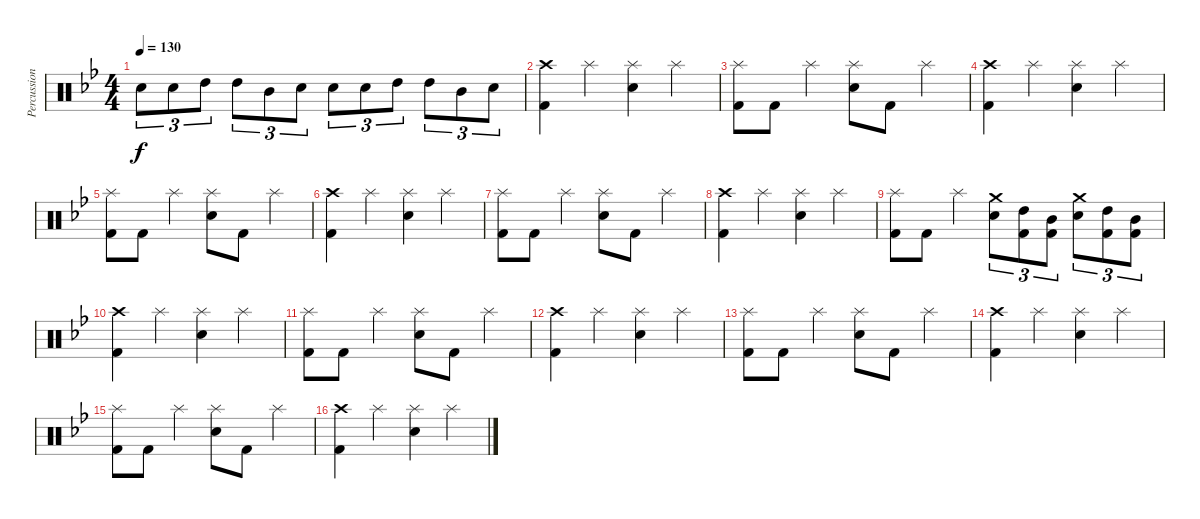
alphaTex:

\track ("Percussions" "Percussion") {instrument percussion}
\staff {score}
\articulation defaults
\ts (4 4)
\tempo 130
\clef neutral
\ks gminor "Electric Snare (hit)".8{tu (3 2) dy f} "Electric Snare (hit)".8{tu (3 2)} "High Tom (hit)".8{tu (3 2)} "High Tom (hit)".8{tu (3 2)} "Mid Tom (hit)".8{tu (3 2)} "Electric Snare (hit)".8{tu (3 2)} "Electric Snare (hit)".8{tu (3 2)} "Electric Snare (hit)".8{tu (3 2)} "High Tom (hit)".8{tu (3 2)} "High Tom (hit)".8{tu (3 2)} "Mid Tom (hit)".8{tu (3 2)} "Electric Snare (hit)".8{tu (3 2)}
|
("Crash high (hit)" "Kick (hit) 2").4 "Splash (hit)".4 ("Splash (hit)" "Electric Snare (hit)").4 "Splash (hit)".4 |
("Splash (hit)" "Kick (hit) 2").8 "Kick (hit) 2".8 "Splash (hit)".4 ("Splash (hit)" "Electric Snare (hit)").8 "Kick (hit) 2".8 "Splash (hit)".4 |
("Crash high (hit)" "Kick (hit) 2").4 "Splash (hit)".4 ("Splash (hit)" "Electric Snare (hit)").4 "Splash (hit)".4 |
("Splash (hit)" "Kick (hit) 2").8 "Kick (hit) 2".8 "Splash (hit)".4 ("Splash (hit)" "Electric Snare (hit)").8 "Kick (hit) 2".8 "Splash (hit)".4 |
("Crash high (hit)" "Kick (hit) 2").4 "Splash (hit)".4 ("Splash (hit)" "Electric Snare (hit)").4 "Splash (hit)".4 |
("Splash (hit)" "Kick (hit) 2").8 "Kick (hit) 2".8 "Splash (hit)".4 ("Splash (hit)" "Electric Snare (hit)").8 "Kick (hit) 2".8 "Splash (hit)".4 |
("Crash high (hit)" "Kick (hit) 2").4 "Splash (hit)".4 ("Splash (hit)" "Electric Snare (hit)").4 "Splash (hit)".4 |
("Splash (hit)" "Kick (hit) 2").8 "Kick (hit) 2".8 "Splash (hit)".4 ("Crash medium (hit)" "Electric Snare (hit)").8{tu (3 2)} ("High Tom (hit)" "Kick (hit) 2").8{tu (3 2)} ("Mid Tom (hit)" "Kick (hit) 2").8{tu (3 2)} ("Crash medium (hit)" "Electric Snare (hit)").8{tu (3 2)} ("High Tom (hit)" "Kick (hit) 2").8{tu (3 2)} ("Mid Tom (hit)" "Kick (hit) 2").8{tu (3 2)} |
("Crash high (hit)" "Kick (hit) 2").4 "Splash (hit)".4 ("Splash (hit)" "Electric Snare (hit)").4 "Splash (hit)".4 |
("Splash (hit)" "Kick (hit) 2").8 "Kick (hit) 2".8 "Splash (hit)".4 ("Splash (hit)" "Electric Snare (hit)").8 "Kick (hit) 2".8 "Splash (hit)".4 |
("Crash high (hit)" "Kick (hit) 2").4 "Splash (hit)".4 ("Splash (hit)" "Electric Snare (hit)").4 "Splash (hit)".4 |
("Splash (hit)" "Kick (hit) 2").8 "Kick (hit) 2".8 "Splash (hit)".4 ("Splash (hit)" "Electric Snare (hit)").8 "Kick (hit) 2".8 "Splash (hit)".4 |
("Crash high (hit)" "Kick (hit) 2").4 "Splash (hit)".4 ("Splash (hit)" "Electric Snare (hit)").4 "Splash (hit)".4 |
("Splash (hit)" "Kick (hit) 2").8 "Kick (hit) 2".8 "Splash (hit)".4 ("Splash (hit)" "Electric Snare (hit)").8 "Kick (hit) 2".8 "Splash (hit)".4 |
("Crash high (hit)" "Kick (hit) 2").4 "Splash (hit)".4 ("Splash (hit)" "Electric Snare (hit)").4 "Splash (hit)".4
